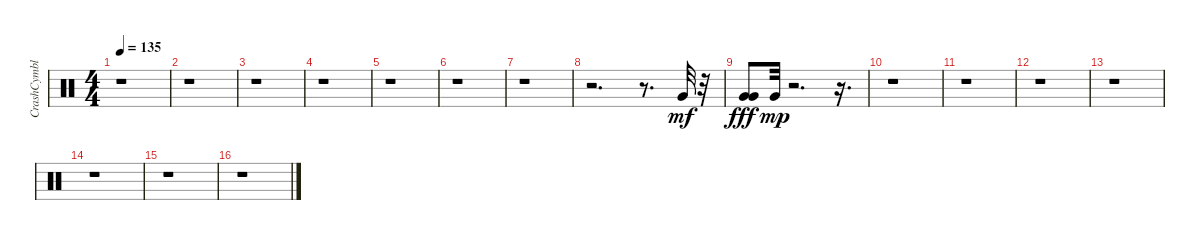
\track ("CrashCymbl" "CrashCymbl") {instrument percussion}
\staff {score}
\articulation defaults
\ts (4 4)
\tempo 135
\clef neutral
\ks c
r.1{dy f} |
r.1 |
r.1 |
r.1 |
r.1 |
r.1 |
r.1 |
r.2{d} r.8{d} "Very Low Tom (hit)".32{dy mf} r.32 |
("Very Low Tom (hit)" "Very Low Tom (hit)").8{dy fff} "Very Low Tom (hit)".32{dy mp} r.2{d} r.16{d} |
r.1 |
r.1 |
r.1 |
r.1 |
r.1 |
r.1 |
r.1
